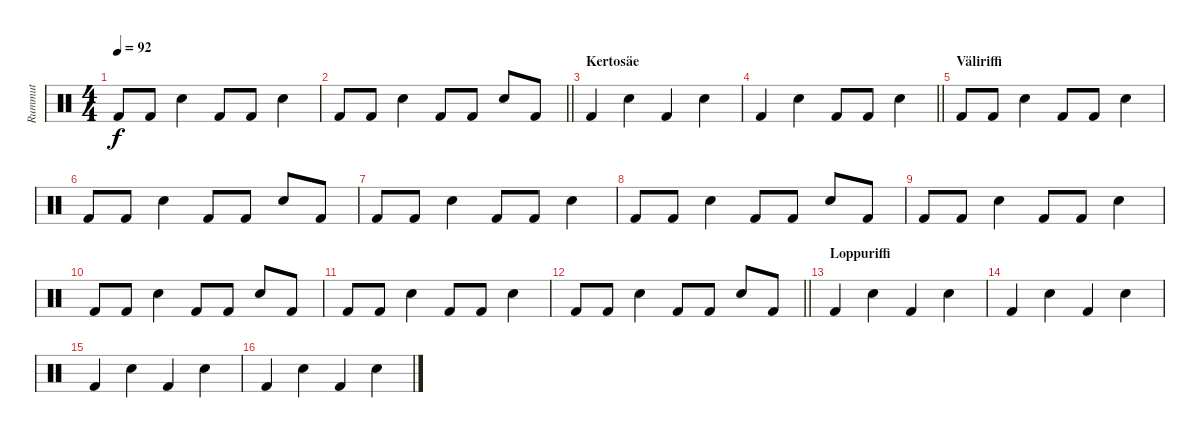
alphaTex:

\track ("Rummut" "Rummut") {instrument percussion}
\staff {score}
\articulation defaults
\ts (4 4)
\tempo 92
\clef neutral
\ks c "Kick (hit) 2".8{dy f} "Kick (hit) 2".8 "Snare (hit) 2".4 "Kick (hit) 2".8 "Kick (hit) 2".8 "Snare (hit) 2".4
|
\barLineRight lightlight "Kick (hit) 2".8 "Kick (hit) 2".8 "Snare (hit) 2".4 "Kick (hit) 2".8 "Kick (hit) 2".8 "Snare (hit) 2".8 "Kick (hit) 2".8
|
\section ("" "Kertosäe")
"Kick (hit) 2".4 "Snare (hit) 2".4 "Kick (hit) 2".4 "Snare (hit) 2".4 |
\barLineRight lightlight "Kick (hit) 2".4 "Snare (hit) 2".4 "Kick (hit) 2".8 "Kick (hit) 2".8 "Snare (hit) 2".4
|
\section ("" "Väliriffi")
"Kick (hit) 2".8 "Kick (hit) 2".8 "Snare (hit) 2".4 "Kick (hit) 2".8 "Kick (hit) 2".8 "Snare (hit) 2".4 |
"Kick (hit) 2".8 "Kick (hit) 2".8 "Snare (hit) 2".4 "Kick (hit) 2".8 "Kick (hit) 2".8 "Snare (hit) 2".8 "Kick (hit) 2".8 |
"Kick (hit) 2".8 "Kick (hit) 2".8 "Snare (hit) 2".4 "Kick (hit) 2".8 "Kick (hit) 2".8 "Snare (hit) 2".4 |
"Kick (hit) 2".8 "Kick (hit) 2".8 "Snare (hit) 2".4 "Kick (hit) 2".8 "Kick (hit) 2".8 "Snare (hit) 2".8 "Kick (hit) 2".8 |
"Kick (hit) 2".8 "Kick (hit) 2".8 "Snare (hit) 2".4 "Kick (hit) 2".8 "Kick (hit) 2".8 "Snare (hit) 2".4 |
"Kick (hit) 2".8 "Kick (hit) 2".8 "Snare (hit) 2".4 "Kick (hit) 2".8 "Kick (hit) 2".8 "Snare (hit) 2".8 "Kick (hit) 2".8 |
"Kick (hit) 2".8 "Kick (hit) 2".8 "Snare (hit) 2".4 "Kick (hit) 2".8 "Kick (hit) 2".8 "Snare (hit) 2".4 |
\barLineRight lightlight "Kick (hit) 2".8 "Kick (hit) 2".8 "Snare (hit) 2".4 "Kick (hit) 2".8 "Kick (hit) 2".8 "Snare (hit) 2".8 "Kick (hit) 2".8
|
\section ("" "Loppuriffi")
"Kick (hit) 2".4 "Snare (hit) 2".4 "Kick (hit) 2".4 "Snare (hit) 2".4 |
"Kick (hit) 2".4 "Snare (hit) 2".4 "Kick (hit) 2".4 "Snare (hit) 2".4 |
"Kick (hit) 2".4 "Snare (hit) 2".4 "Kick (hit) 2".4 "Snare (hit) 2".4 |
"Kick (hit) 2".4 "Snare (hit) 2".4 "Kick (hit) 2".4 "Snare (hit) 2".4
